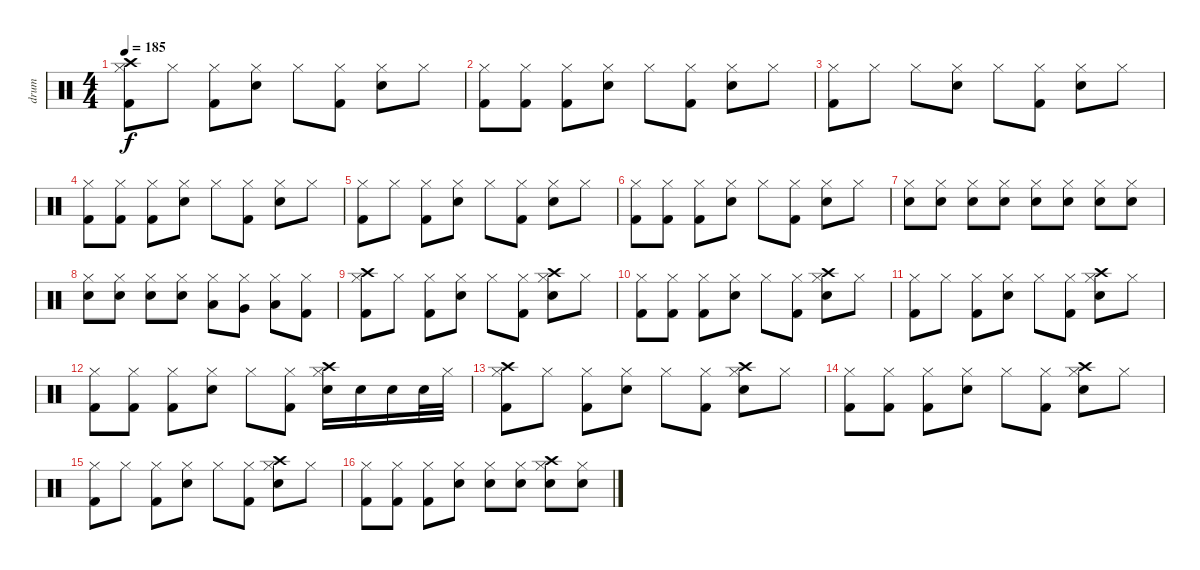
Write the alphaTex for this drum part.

\track ("drum" "drum") {instrument percussion}
\staff {score}
\articulation defaults
\ts (4 4)
\tempo 185
\clef neutral
\ks c
("Hi-Hat (closed)" "Crash high (hit)" "Kick (hit) 2").8{dy f} "Hi-Hat (closed)".8 ("Hi-Hat (closed)" "Kick (hit) 2").8 ("Hi-Hat (closed)" "Electric Snare (hit)").8 "Hi-Hat (closed)".8 ("Hi-Hat (closed)" "Kick (hit) 2").8 ("Hi-Hat (closed)" "Electric Snare (hit)").8 "Hi-Hat (closed)".8 |
("Hi-Hat (closed)" "Kick (hit) 2").8 ("Hi-Hat (closed)" "Kick (hit) 2").8 ("Hi-Hat (closed)" "Kick (hit) 2").8 ("Hi-Hat (closed)" "Electric Snare (hit)").8 "Hi-Hat (closed)".8 ("Hi-Hat (closed)" "Kick (hit) 2").8 ("Hi-Hat (closed)" "Electric Snare (hit)").8 "Hi-Hat (closed)".8 |
("Hi-Hat (closed)" "Kick (hit) 2").8 "Hi-Hat (closed)".8 "Hi-Hat (closed)".8 ("Hi-Hat (closed)" "Electric Snare (hit)").8 "Hi-Hat (closed)".8 ("Hi-Hat (closed)" "Kick (hit) 2").8 ("Hi-Hat (closed)" "Electric Snare (hit)").8 "Hi-Hat (closed)".8 |
("Hi-Hat (closed)" "Kick (hit) 2").8 ("Hi-Hat (closed)" "Kick (hit) 2").8 ("Hi-Hat (closed)" "Kick (hit) 2").8 ("Hi-Hat (closed)" "Electric Snare (hit)").8 "Hi-Hat (closed)".8 ("Hi-Hat (closed)" "Kick (hit) 2").8 ("Hi-Hat (closed)" "Electric Snare (hit)").8 "Hi-Hat (closed)".8 |
("Hi-Hat (closed)" "Kick (hit) 2").8 "Hi-Hat (closed)".8 ("Hi-Hat (closed)" "Kick (hit) 2").8 ("Hi-Hat (closed)" "Electric Snare (hit)").8 "Hi-Hat (closed)".8 ("Hi-Hat (closed)" "Kick (hit) 2").8 ("Hi-Hat (closed)" "Electric Snare (hit)").8 "Hi-Hat (closed)".8 |
("Hi-Hat (closed)" "Kick (hit) 2").8 ("Hi-Hat (closed)" "Kick (hit) 2").8 ("Hi-Hat (closed)" "Kick (hit) 2").8 ("Hi-Hat (closed)" "Electric Snare (hit)").8 "Hi-Hat (closed)".8 ("Hi-Hat (closed)" "Kick (hit) 2").8 ("Hi-Hat (closed)" "Electric Snare (hit)").8 "Hi-Hat (closed)".8 |
("Hi-Hat (closed)" "Electric Snare (hit)").8 ("Hi-Hat (closed)" "Electric Snare (hit)").8 ("Hi-Hat (closed)" "Electric Snare (hit)").8 ("Hi-Hat (closed)" "Electric Snare (hit)").8 ("Hi-Hat (closed)" "Electric Snare (hit)").8 ("Hi-Hat (closed)" "Electric Snare (hit)").8 ("Hi-Hat (closed)" "Electric Snare (hit)").8 ("Hi-Hat (closed)" "Electric Snare (hit)").8 |
("Hi-Hat (closed)" "Electric Snare (hit)").8 ("Hi-Hat (closed)" "Electric Snare (hit)").8 ("Hi-Hat (closed)" "Electric Snare (hit)").8 ("Hi-Hat (closed)" "Electric Snare (hit)").8 ("Hi-Hat (closed)" "Low Tom (hit)").8 ("Hi-Hat (closed)" "Very Low Tom (hit)").8 ("Hi-Hat (closed)" "Low Floor Tom (hit)").8 ("Hi-Hat (closed)" "Kick (hit) 2").8 |
("Hi-Hat (closed)" "Crash high (hit)" "Kick (hit) 2").8 "Hi-Hat (closed)".8 ("Hi-Hat (closed)" "Kick (hit) 2").8 ("Hi-Hat (closed)" "Electric Snare (hit)").8 "Hi-Hat (closed)".8 ("Hi-Hat (closed)" "Kick (hit) 2").8 ("Crash high (hit)" "Hi-Hat (closed)" "Electric Snare (hit)").8 "Hi-Hat (closed)".8 |
("Hi-Hat (closed)" "Kick (hit) 2").8 ("Hi-Hat (closed)" "Kick (hit) 2").8 ("Hi-Hat (closed)" "Kick (hit) 2").8 ("Hi-Hat (closed)" "Electric Snare (hit)").8 "Hi-Hat (closed)".8 ("Hi-Hat (closed)" "Kick (hit) 2").8 ("Crash high (hit)" "Hi-Hat (closed)" "Electric Snare (hit)").8 "Hi-Hat (closed)".8 |
("Hi-Hat (closed)" "Kick (hit) 2").8 "Hi-Hat (closed)".8 ("Hi-Hat (closed)" "Kick (hit) 2").8 ("Hi-Hat (closed)" "Electric Snare (hit)").8 "Hi-Hat (closed)".8 ("Hi-Hat (closed)" "Kick (hit) 2").8 ("Crash high (hit)" "Hi-Hat (closed)" "Electric Snare (hit)").8 "Hi-Hat (closed)".8 |
("Hi-Hat (closed)" "Kick (hit) 2").8 ("Hi-Hat (closed)" "Kick (hit) 2").8 ("Hi-Hat (closed)" "Kick (hit) 2").8 ("Hi-Hat (closed)" "Electric Snare (hit)").8 "Hi-Hat (closed)".8 ("Hi-Hat (closed)" "Kick (hit) 2").8 ("Crash high (hit)" "Hi-Hat (closed)" "Electric Snare (hit)").16 "Electric Snare (hit)".16 "Electric Snare (hit)".16 "Electric Snare (hit)".32 "Hi-Hat (closed)".32 |
("Hi-Hat (closed)" "Crash high (hit)" "Kick (hit) 2").8 "Hi-Hat (closed)".8 ("Hi-Hat (closed)" "Kick (hit) 2").8 ("Hi-Hat (closed)" "Electric Snare (hit)").8 "Hi-Hat (closed)".8 ("Hi-Hat (closed)" "Kick (hit) 2").8 ("Crash high (hit)" "Hi-Hat (closed)" "Electric Snare (hit)").8 "Hi-Hat (closed)".8 |
("Hi-Hat (closed)" "Kick (hit) 2").8 ("Hi-Hat (closed)" "Kick (hit) 2").8 ("Hi-Hat (closed)" "Kick (hit) 2").8 ("Hi-Hat (closed)" "Electric Snare (hit)").8 "Hi-Hat (closed)".8 ("Hi-Hat (closed)" "Kick (hit) 2").8 ("Crash high (hit)" "Hi-Hat (closed)" "Electric Snare (hit)").8 "Hi-Hat (closed)".8 |
("Hi-Hat (closed)" "Kick (hit) 2").8 "Hi-Hat (closed)".8 ("Hi-Hat (closed)" "Kick (hit) 2").8 ("Hi-Hat (closed)" "Electric Snare (hit)").8 "Hi-Hat (closed)".8 ("Hi-Hat (closed)" "Kick (hit) 2").8 ("Crash high (hit)" "Hi-Hat (closed)" "Electric Snare (hit)").8 "Hi-Hat (closed)".8 |
("Hi-Hat (closed)" "Kick (hit) 2").8 ("Hi-Hat (closed)" "Kick (hit) 2").8 ("Hi-Hat (closed)" "Kick (hit) 2").8 ("Hi-Hat (closed)" "Electric Snare (hit)").8 ("Hi-Hat (closed)" "Electric Snare (hit)").8 ("Hi-Hat (closed)" "Electric Snare (hit)").8 ("Crash high (hit)" "Hi-Hat (closed)" "Electric Snare (hit)").8 ("Hi-Hat (closed)" "Electric Snare (hit)").8
